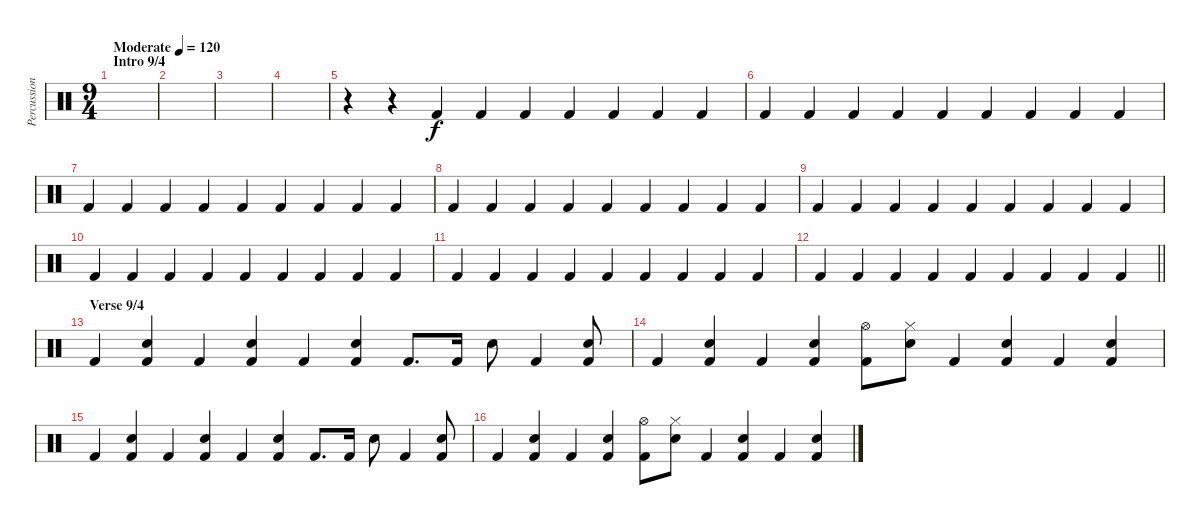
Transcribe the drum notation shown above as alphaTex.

\track ("Percussion" "Percussion") {instrument percussion}
\staff {score}
\articulation defaults
\ts (9 4)
\section ("" "Intro 9/4")
\tempo (120 "Moderate")
\clef neutral
\ks c
|
|
|
|
r.4 r.4 "Kick (hit) 2".4 "Kick (hit) 2".4 "Kick (hit) 2".4 "Kick (hit) 2".4 "Kick (hit) 2".4 "Kick (hit) 2".4 "Kick (hit) 2".4 |
"Kick (hit) 2".4 "Kick (hit) 2".4 "Kick (hit) 2".4 "Kick (hit) 2".4 "Kick (hit) 2".4 "Kick (hit) 2".4 "Kick (hit) 2".4 "Kick (hit) 2".4 "Kick (hit) 2".4 |
"Kick (hit) 2".4 "Kick (hit) 2".4 "Kick (hit) 2".4 "Kick (hit) 2".4 "Kick (hit) 2".4 "Kick (hit) 2".4 "Kick (hit) 2".4 "Kick (hit) 2".4 "Kick (hit) 2".4 |
"Kick (hit) 2".4 "Kick (hit) 2".4 "Kick (hit) 2".4 "Kick (hit) 2".4 "Kick (hit) 2".4 "Kick (hit) 2".4 "Kick (hit) 2".4 "Kick (hit) 2".4 "Kick (hit) 2".4 |
"Kick (hit) 2".4 "Kick (hit) 2".4 "Kick (hit) 2".4 "Kick (hit) 2".4 "Kick (hit) 2".4 "Kick (hit) 2".4 "Kick (hit) 2".4 "Kick (hit) 2".4 "Kick (hit) 2".4 |
"Kick (hit) 2".4 "Kick (hit) 2".4 "Kick (hit) 2".4 "Kick (hit) 2".4 "Kick (hit) 2".4 "Kick (hit) 2".4 "Kick (hit) 2".4 "Kick (hit) 2".4 "Kick (hit) 2".4 |
"Kick (hit) 2".4 "Kick (hit) 2".4 "Kick (hit) 2".4 "Kick (hit) 2".4 "Kick (hit) 2".4 "Kick (hit) 2".4 "Kick (hit) 2".4 "Kick (hit) 2".4 "Kick (hit) 2".4 |
\barLineRight lightlight "Kick (hit) 2".4 "Kick (hit) 2".4 "Kick (hit) 2".4 "Kick (hit) 2".4 "Kick (hit) 2".4 "Kick (hit) 2".4 "Kick (hit) 2".4 "Kick (hit) 2".4 "Kick (hit) 2".4
|
\section ("" "Verse 9/4")
"Kick (hit) 2".4 ("Snare (hit) 2" "Kick (hit) 2").4 "Kick (hit) 2".4 ("Snare (hit) 2" "Kick (hit) 2").4 "Kick (hit) 2".4 ("Snare (hit) 2" "Kick (hit) 2").4 "Kick (hit) 2".8{d} "Kick (hit) 2".16 "Snare (hit) 2".8 "Kick (hit) 2".4 ("Snare (hit) 2" "Kick (hit) 2").8 |
"Kick (hit) 2".4 ("Snare (hit) 2" "Kick (hit) 2").4 "Kick (hit) 2".4 ("Snare (hit) 2" "Kick (hit) 2").4 ("Hi-Hat (open)" "Kick (hit) 2").8 ("Hi-Hat (closed)" "Snare (hit) 2").8 "Kick (hit) 2".4 ("Snare (hit) 2" "Kick (hit) 2").4 "Kick (hit) 2".4 ("Snare (hit) 2" "Kick (hit) 2").4 |
"Kick (hit) 2".4 ("Snare (hit) 2" "Kick (hit) 2").4 "Kick (hit) 2".4 ("Snare (hit) 2" "Kick (hit) 2").4 "Kick (hit) 2".4 ("Snare (hit) 2" "Kick (hit) 2").4 "Kick (hit) 2".8{d} "Kick (hit) 2".16 "Snare (hit) 2".8 "Kick (hit) 2".4 ("Snare (hit) 2" "Kick (hit) 2").8 |
"Kick (hit) 2".4 ("Snare (hit) 2" "Kick (hit) 2").4 "Kick (hit) 2".4 ("Snare (hit) 2" "Kick (hit) 2").4 ("Hi-Hat (open)" "Kick (hit) 2").8 ("Hi-Hat (closed)" "Snare (hit) 2").8 "Kick (hit) 2".4 ("Snare (hit) 2" "Kick (hit) 2").4 "Kick (hit) 2".4 ("Snare (hit) 2" "Kick (hit) 2").4
